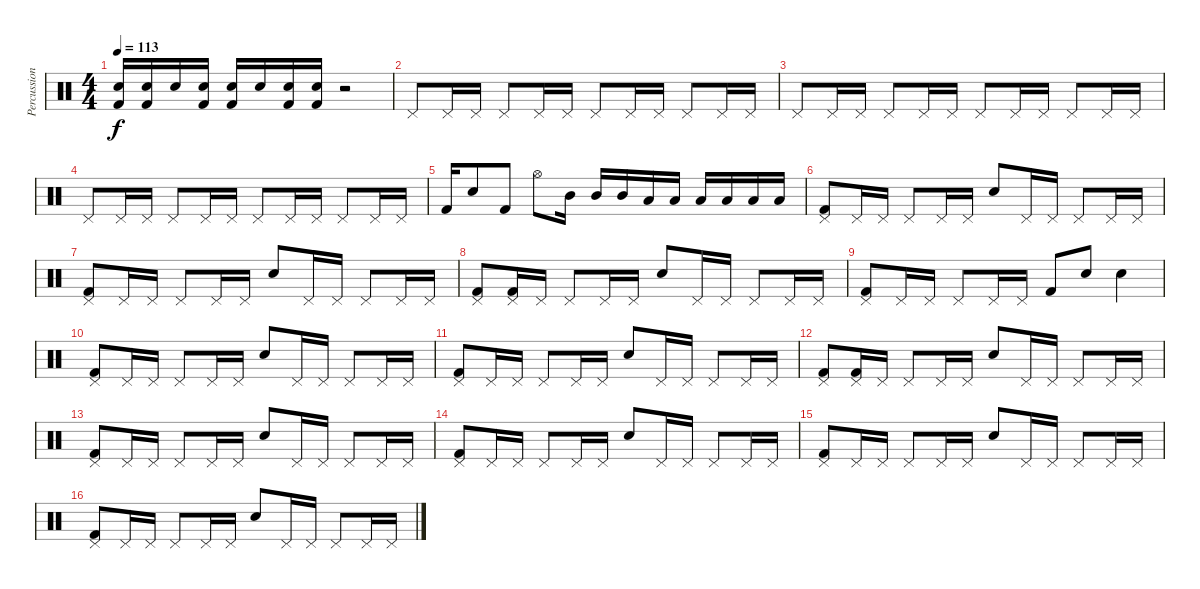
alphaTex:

\track ("Percussion" "Percussion") {instrument percussion}
\staff {score}
\articulation defaults
\ts (4 4)
\tempo 113
\clef neutral
\ks c
("Electric Snare (hit)" "Kick (hit) 2").16{dy f} ("Electric Snare (hit)" "Kick (hit) 2").16 "Electric Snare (hit)".16 ("Electric Snare (hit)" "Kick (hit) 2").16 ("Electric Snare (hit)" "Kick (hit) 2").16 "Electric Snare (hit)".16 ("Electric Snare (hit)" "Kick (hit) 2").16 ("Electric Snare (hit)" "Kick (hit) 2").16 r.2 |
"Pedal Hi-Hat (hit)".8 "Pedal Hi-Hat (hit)".16 "Pedal Hi-Hat (hit)".16 "Pedal Hi-Hat (hit)".8 "Pedal Hi-Hat (hit)".16 "Pedal Hi-Hat (hit)".16 "Pedal Hi-Hat (hit)".8 "Pedal Hi-Hat (hit)".16 "Pedal Hi-Hat (hit)".16 "Pedal Hi-Hat (hit)".8 "Pedal Hi-Hat (hit)".16 "Pedal Hi-Hat (hit)".16 |
"Pedal Hi-Hat (hit)".8 "Pedal Hi-Hat (hit)".16 "Pedal Hi-Hat (hit)".16 "Pedal Hi-Hat (hit)".8 "Pedal Hi-Hat (hit)".16 "Pedal Hi-Hat (hit)".16 "Pedal Hi-Hat (hit)".8 "Pedal Hi-Hat (hit)".16 "Pedal Hi-Hat (hit)".16 "Pedal Hi-Hat (hit)".8 "Pedal Hi-Hat (hit)".16 "Pedal Hi-Hat (hit)".16 |
"Pedal Hi-Hat (hit)".8 "Pedal Hi-Hat (hit)".16 "Pedal Hi-Hat (hit)".16 "Pedal Hi-Hat (hit)".8 "Pedal Hi-Hat (hit)".16 "Pedal Hi-Hat (hit)".16 "Pedal Hi-Hat (hit)".8 "Pedal Hi-Hat (hit)".16 "Pedal Hi-Hat (hit)".16 "Pedal Hi-Hat (hit)".8 "Pedal Hi-Hat (hit)".16 "Pedal Hi-Hat (hit)".16 |
"Kick (hit) 2".16 "Electric Snare (hit)".8 "Kick (hit) 2".8 "Hi-Hat (open)".8 "Mid Tom (hit)".16 "Mid Tom (hit)".16 "Mid Tom (hit)".16 "Low Tom (hit)".16 "Low Tom (hit)".16 "Low Tom (hit)".16 "Low Floor Tom (hit)".16 "Low Floor Tom (hit)".16 "Low Floor Tom (hit)".16 |
("Pedal Hi-Hat (hit)" "Kick (hit) 2").8 "Pedal Hi-Hat (hit)".16 "Pedal Hi-Hat (hit)".16 "Pedal Hi-Hat (hit)".8 "Pedal Hi-Hat (hit)".16 "Pedal Hi-Hat (hit)".16 "Electric Snare (hit)".8 "Pedal Hi-Hat (hit)".16 "Pedal Hi-Hat (hit)".16 "Pedal Hi-Hat (hit)".8 "Pedal Hi-Hat (hit)".16 "Pedal Hi-Hat (hit)".16 |
("Pedal Hi-Hat (hit)" "Kick (hit) 2").8 "Pedal Hi-Hat (hit)".16 "Pedal Hi-Hat (hit)".16 "Pedal Hi-Hat (hit)".8 "Pedal Hi-Hat (hit)".16 "Pedal Hi-Hat (hit)".16 "Electric Snare (hit)".8 "Pedal Hi-Hat (hit)".16 "Pedal Hi-Hat (hit)".16 "Pedal Hi-Hat (hit)".8 "Pedal Hi-Hat (hit)".16 "Pedal Hi-Hat (hit)".16 |
("Pedal Hi-Hat (hit)" "Kick (hit) 2").8 ("Pedal Hi-Hat (hit)" "Kick (hit) 2").16 "Pedal Hi-Hat (hit)".16 "Pedal Hi-Hat (hit)".8 "Pedal Hi-Hat (hit)".16 "Pedal Hi-Hat (hit)".16 "Electric Snare (hit)".8 "Pedal Hi-Hat (hit)".16 "Pedal Hi-Hat (hit)".16 "Pedal Hi-Hat (hit)".8 "Pedal Hi-Hat (hit)".16 "Pedal Hi-Hat (hit)".16 |
("Pedal Hi-Hat (hit)" "Kick (hit) 2").8 "Pedal Hi-Hat (hit)".16 "Pedal Hi-Hat (hit)".16 "Pedal Hi-Hat (hit)".8 "Pedal Hi-Hat (hit)".16 "Pedal Hi-Hat (hit)".16 "Kick (hit) 2".8 "Electric Snare (hit)".8 "Electric Snare (hit)".4 |
("Pedal Hi-Hat (hit)" "Kick (hit) 2").8 "Pedal Hi-Hat (hit)".16 "Pedal Hi-Hat (hit)".16 "Pedal Hi-Hat (hit)".8 "Pedal Hi-Hat (hit)".16 "Pedal Hi-Hat (hit)".16 "Electric Snare (hit)".8 "Pedal Hi-Hat (hit)".16 "Pedal Hi-Hat (hit)".16 "Pedal Hi-Hat (hit)".8 "Pedal Hi-Hat (hit)".16 "Pedal Hi-Hat (hit)".16 |
("Pedal Hi-Hat (hit)" "Kick (hit) 2").8 "Pedal Hi-Hat (hit)".16 "Pedal Hi-Hat (hit)".16 "Pedal Hi-Hat (hit)".8 "Pedal Hi-Hat (hit)".16 "Pedal Hi-Hat (hit)".16 "Electric Snare (hit)".8 "Pedal Hi-Hat (hit)".16 "Pedal Hi-Hat (hit)".16 "Pedal Hi-Hat (hit)".8 "Pedal Hi-Hat (hit)".16 "Pedal Hi-Hat (hit)".16 |
("Pedal Hi-Hat (hit)" "Kick (hit) 2").8 ("Pedal Hi-Hat (hit)" "Kick (hit) 2").16 "Pedal Hi-Hat (hit)".16 "Pedal Hi-Hat (hit)".8 "Pedal Hi-Hat (hit)".16 "Pedal Hi-Hat (hit)".16 "Electric Snare (hit)".8 "Pedal Hi-Hat (hit)".16 "Pedal Hi-Hat (hit)".16 "Pedal Hi-Hat (hit)".8 "Pedal Hi-Hat (hit)".16 "Pedal Hi-Hat (hit)".16 |
("Pedal Hi-Hat (hit)" "Kick (hit) 2").8 "Pedal Hi-Hat (hit)".16 "Pedal Hi-Hat (hit)".16 "Pedal Hi-Hat (hit)".8 "Pedal Hi-Hat (hit)".16 "Pedal Hi-Hat (hit)".16 "Electric Snare (hit)".8 "Pedal Hi-Hat (hit)".16 "Pedal Hi-Hat (hit)".16 "Pedal Hi-Hat (hit)".8 "Pedal Hi-Hat (hit)".16 "Pedal Hi-Hat (hit)".16 |
("Pedal Hi-Hat (hit)" "Kick (hit) 2").8 "Pedal Hi-Hat (hit)".16 "Pedal Hi-Hat (hit)".16 "Pedal Hi-Hat (hit)".8 "Pedal Hi-Hat (hit)".16 "Pedal Hi-Hat (hit)".16 "Electric Snare (hit)".8 "Pedal Hi-Hat (hit)".16 "Pedal Hi-Hat (hit)".16 "Pedal Hi-Hat (hit)".8 "Pedal Hi-Hat (hit)".16 "Pedal Hi-Hat (hit)".16 |
("Pedal Hi-Hat (hit)" "Kick (hit) 2").8 "Pedal Hi-Hat (hit)".16 "Pedal Hi-Hat (hit)".16 "Pedal Hi-Hat (hit)".8 "Pedal Hi-Hat (hit)".16 "Pedal Hi-Hat (hit)".16 "Electric Snare (hit)".8 "Pedal Hi-Hat (hit)".16 "Pedal Hi-Hat (hit)".16 "Pedal Hi-Hat (hit)".8 "Pedal Hi-Hat (hit)".16 "Pedal Hi-Hat (hit)".16 |
("Pedal Hi-Hat (hit)" "Kick (hit) 2").8 "Pedal Hi-Hat (hit)".16 "Pedal Hi-Hat (hit)".16 "Pedal Hi-Hat (hit)".8 "Pedal Hi-Hat (hit)".16 "Pedal Hi-Hat (hit)".16 "Electric Snare (hit)".8 "Pedal Hi-Hat (hit)".16 "Pedal Hi-Hat (hit)".16 "Pedal Hi-Hat (hit)".8 "Pedal Hi-Hat (hit)".16 "Pedal Hi-Hat (hit)".16
